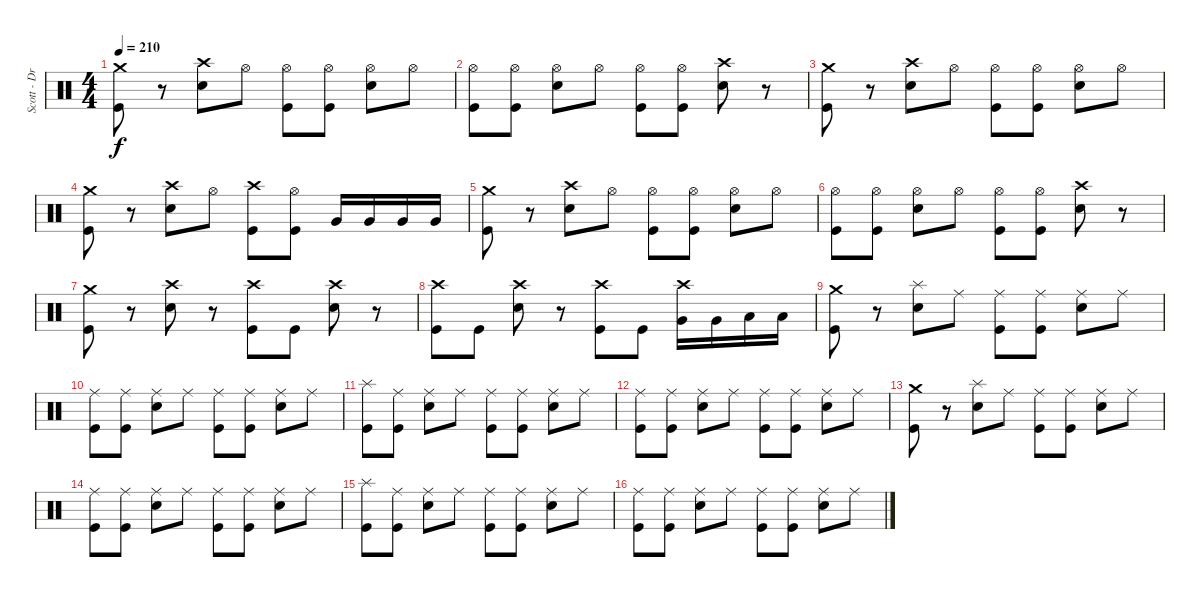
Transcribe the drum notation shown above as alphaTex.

\track ("Scott - Drums" "Scott - Dr") {instrument percussion}
\staff {score}
\articulation defaults
\ts (4 4)
\tempo 210
\clef neutral
\ks c
("Crash medium (hit)" "Kick (hit)").8{dy f} r.8 ("Crash high (hit)" "Electric Snare (hit)").8 "Hi-Hat (open)".8 ("Hi-Hat (open)" "Kick (hit)").8 ("Hi-Hat (open)" "Kick (hit)").8 ("Hi-Hat (open)" "Electric Snare (hit)").8 "Hi-Hat (open)".8 |
("Hi-Hat (open)" "Kick (hit)").8 ("Hi-Hat (open)" "Kick (hit)").8 ("Hi-Hat (open)" "Electric Snare (hit)").8 "Hi-Hat (open)".8 ("Hi-Hat (open)" "Kick (hit)").8 ("Hi-Hat (open)" "Kick (hit)").8 ("Crash high (hit)" "Electric Snare (hit)").8 r.8 |
("Crash medium (hit)" "Kick (hit)").8 r.8 ("Crash high (hit)" "Electric Snare (hit)").8 "Hi-Hat (open)".8 ("Hi-Hat (open)" "Kick (hit)").8 ("Hi-Hat (open)" "Kick (hit)").8 ("Hi-Hat (open)" "Electric Snare (hit)").8 "Hi-Hat (open)".8 |
("Crash medium (hit)" "Kick (hit)").8 r.8 ("Crash high (hit)" "Electric Snare (hit)").8 "Hi-Hat (open)".8 ("Crash high (hit)" "Kick (hit)").8 ("Hi-Hat (open)" "Kick (hit)").8 "Very Low Tom (hit)".16 "Very Low Tom (hit)".16 "Very Low Tom (hit)".16 "Very Low Tom (hit)".16 |
("Crash medium (hit)" "Kick (hit)").8 r.8 ("Crash high (hit)" "Electric Snare (hit)").8 "Hi-Hat (open)".8 ("Hi-Hat (open)" "Kick (hit)").8 ("Hi-Hat (open)" "Kick (hit)").8 ("Hi-Hat (open)" "Electric Snare (hit)").8 "Hi-Hat (open)".8 |
("Hi-Hat (open)" "Kick (hit)").8 ("Hi-Hat (open)" "Kick (hit)").8 ("Hi-Hat (open)" "Electric Snare (hit)").8 "Hi-Hat (open)".8 ("Hi-Hat (open)" "Kick (hit)").8 ("Hi-Hat (open)" "Kick (hit)").8 ("Crash high (hit)" "Electric Snare (hit)").8 r.8 |
("Crash medium (hit)" "Kick (hit)").8 r.8 ("Crash high (hit)" "Electric Snare (hit)").8 r.8 ("Crash high (hit)" "Kick (hit)").8 "Kick (hit)".8 ("Crash high (hit)" "Electric Snare (hit)").8 r.8 |
("Crash high (hit)" "Kick (hit)").8 "Kick (hit)".8 ("Crash high (hit)" "Electric Snare (hit)").8 r.8 ("Crash high (hit)" "Kick (hit)").8 "Kick (hit)".8 ("Crash high (hit)" "Very Low Tom (hit)").16 "Very Low Tom (hit)".16 "Low Floor Tom (hit)".16 "Low Floor Tom (hit)".16 |
("Crash medium (hit)" "Kick (hit)").8 r.8 ("Splash (hit)" "Electric Snare (hit)").8 "Ride (middle)".8 ("Ride (middle)" "Kick (hit)").8 ("Ride (middle)" "Kick (hit)").8 ("Ride (middle)" "Electric Snare (hit)").8 "Ride (middle)".8 |
("Ride (middle)" "Kick (hit)").8 ("Ride (middle)" "Kick (hit)").8 ("Ride (middle)" "Electric Snare (hit)").8 "Ride (middle)".8 ("Ride (middle)" "Kick (hit)").8 ("Ride (middle)" "Kick (hit)").8 ("Ride (middle)" "Electric Snare (hit)").8 "Ride (middle)".8 |
("Splash (hit)" "Kick (hit)").8 ("Ride (middle)" "Kick (hit)").8 ("Ride (middle)" "Electric Snare (hit)").8 "Ride (middle)".8 ("Ride (middle)" "Kick (hit)").8 ("Ride (middle)" "Kick (hit)").8 ("Ride (middle)" "Electric Snare (hit)").8 "Ride (middle)".8 |
("Ride (middle)" "Kick (hit)").8 ("Ride (middle)" "Kick (hit)").8 ("Ride (middle)" "Electric Snare (hit)").8 "Ride (middle)".8 ("Ride (middle)" "Kick (hit)").8 ("Ride (middle)" "Kick (hit)").8 ("Ride (middle)" "Electric Snare (hit)").8 "Ride (middle)".8 |
("Crash medium (hit)" "Kick (hit)").8 r.8 ("Splash (hit)" "Electric Snare (hit)").8 "Ride (middle)".8 ("Ride (middle)" "Kick (hit)").8 ("Ride (middle)" "Kick (hit)").8 ("Ride (middle)" "Electric Snare (hit)").8 "Ride (middle)".8 |
("Ride (middle)" "Kick (hit)").8 ("Ride (middle)" "Kick (hit)").8 ("Ride (middle)" "Electric Snare (hit)").8 "Ride (middle)".8 ("Ride (middle)" "Kick (hit)").8 ("Ride (middle)" "Kick (hit)").8 ("Ride (middle)" "Electric Snare (hit)").8 "Ride (middle)".8 |
("Splash (hit)" "Kick (hit)").8 ("Ride (middle)" "Kick (hit)").8 ("Ride (middle)" "Electric Snare (hit)").8 "Ride (middle)".8 ("Ride (middle)" "Kick (hit)").8 ("Ride (middle)" "Kick (hit)").8 ("Ride (middle)" "Electric Snare (hit)").8 "Ride (middle)".8 |
("Ride (middle)" "Kick (hit)").8 ("Ride (middle)" "Kick (hit)").8 ("Ride (middle)" "Electric Snare (hit)").8 "Ride (middle)".8 ("Ride (middle)" "Kick (hit)").8 ("Ride (middle)" "Kick (hit)").8 ("Ride (middle)" "Electric Snare (hit)").8 "Ride (middle)".8
